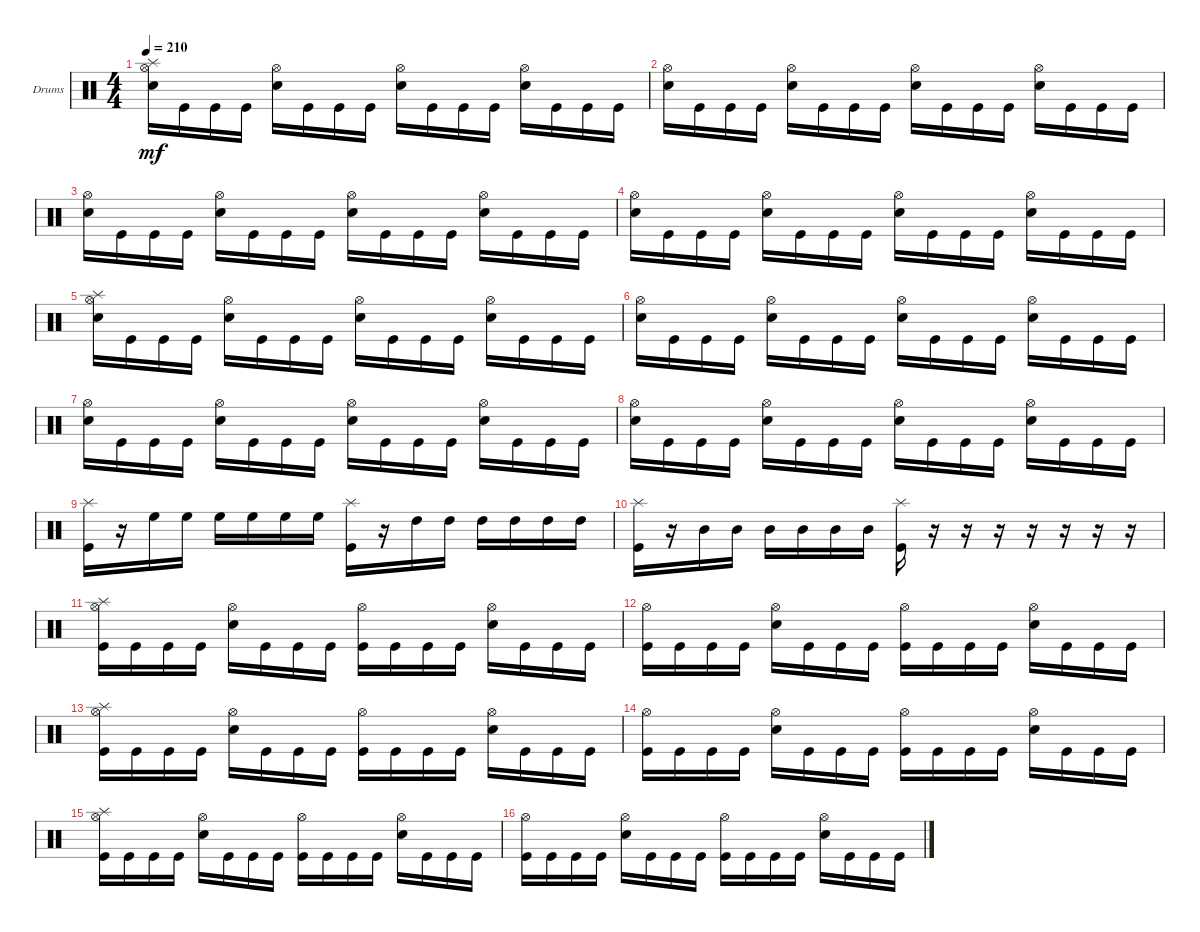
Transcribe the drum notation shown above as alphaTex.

\bracketExtendMode groupsimilarinstruments
\firstSystemTrackNameOrientation horizontal
\otherSystemsTrackNameOrientation horizontal
\track ("Drumkit" "Drums") {instrument percussion}
\staff {score}
\articulation defaults
\ts (4 4)
\tempo 210
\clef neutral
\ks c
("Snare (hit) 2" "Hi-Hat (open)" "Splash (hit)").16{dy mf} "Kick (hit)".16 "Kick (hit)".16 "Kick (hit)".16 ("Snare (hit) 2" "Hi-Hat (open)").16 "Kick (hit)".16 "Kick (hit)".16 "Kick (hit)".16 ("Snare (hit) 2" "Hi-Hat (open)").16 "Kick (hit)".16 "Kick (hit)".16 "Kick (hit)".16 ("Snare (hit) 2" "Hi-Hat (open)").16 "Kick (hit)".16 "Kick (hit)".16 "Kick (hit)".16 |
("Snare (hit) 2" "Hi-Hat (open)").16 "Kick (hit)".16 "Kick (hit)".16 "Kick (hit)".16 ("Snare (hit) 2" "Hi-Hat (open)").16 "Kick (hit)".16 "Kick (hit)".16 "Kick (hit)".16 ("Snare (hit) 2" "Hi-Hat (open)").16 "Kick (hit)".16 "Kick (hit)".16 "Kick (hit)".16 ("Snare (hit) 2" "Hi-Hat (open)").16 "Kick (hit)".16 "Kick (hit)".16 "Kick (hit)".16 |
("Snare (hit) 2" "Hi-Hat (open)").16 "Kick (hit)".16 "Kick (hit)".16 "Kick (hit)".16 ("Snare (hit) 2" "Hi-Hat (open)").16 "Kick (hit)".16 "Kick (hit)".16 "Kick (hit)".16 ("Snare (hit) 2" "Hi-Hat (open)").16 "Kick (hit)".16 "Kick (hit)".16 "Kick (hit)".16 ("Snare (hit) 2" "Hi-Hat (open)").16 "Kick (hit)".16 "Kick (hit)".16 "Kick (hit)".16 |
("Snare (hit) 2" "Hi-Hat (open)").16 "Kick (hit)".16 "Kick (hit)".16 "Kick (hit)".16 ("Snare (hit) 2" "Hi-Hat (open)").16 "Kick (hit)".16 "Kick (hit)".16 "Kick (hit)".16 ("Snare (hit) 2" "Hi-Hat (open)").16 "Kick (hit)".16 "Kick (hit)".16 "Kick (hit)".16 ("Snare (hit) 2" "Hi-Hat (open)").16 "Kick (hit)".16 "Kick (hit)".16 "Kick (hit)".16 |
("Snare (hit) 2" "Hi-Hat (open)" "Splash (hit)").16 "Kick (hit)".16 "Kick (hit)".16 "Kick (hit)".16 ("Snare (hit) 2" "Hi-Hat (open)").16 "Kick (hit)".16 "Kick (hit)".16 "Kick (hit)".16 ("Snare (hit) 2" "Hi-Hat (open)").16 "Kick (hit)".16 "Kick (hit)".16 "Kick (hit)".16 ("Snare (hit) 2" "Hi-Hat (open)").16 "Kick (hit)".16 "Kick (hit)".16 "Kick (hit)".16 |
("Snare (hit) 2" "Hi-Hat (open)").16 "Kick (hit)".16 "Kick (hit)".16 "Kick (hit)".16 ("Snare (hit) 2" "Hi-Hat (open)").16 "Kick (hit)".16 "Kick (hit)".16 "Kick (hit)".16 ("Snare (hit) 2" "Hi-Hat (open)").16 "Kick (hit)".16 "Kick (hit)".16 "Kick (hit)".16 ("Snare (hit) 2" "Hi-Hat (open)").16 "Kick (hit)".16 "Kick (hit)".16 "Kick (hit)".16 |
("Snare (hit) 2" "Hi-Hat (open)").16 "Kick (hit)".16 "Kick (hit)".16 "Kick (hit)".16 ("Snare (hit) 2" "Hi-Hat (open)").16 "Kick (hit)".16 "Kick (hit)".16 "Kick (hit)".16 ("Snare (hit) 2" "Hi-Hat (open)").16 "Kick (hit)".16 "Kick (hit)".16 "Kick (hit)".16 ("Snare (hit) 2" "Hi-Hat (open)").16 "Kick (hit)".16 "Kick (hit)".16 "Kick (hit)".16 |
("Snare (hit) 2" "Hi-Hat (open)").16 "Kick (hit)".16 "Kick (hit)".16 "Kick (hit)".16 ("Snare (hit) 2" "Hi-Hat (open)").16 "Kick (hit)".16 "Kick (hit)".16 "Kick (hit)".16 ("Snare (hit) 2" "Hi-Hat (open)").16 "Kick (hit)".16 "Kick (hit)".16 "Kick (hit)".16 ("Snare (hit) 2" "Hi-Hat (open)").16 "Kick (hit)".16 "Kick (hit)".16 "Kick (hit)".16 |
("Kick (hit)" "Splash (hit)").16 r.16 "High Floor Tom (hit)".16 "High Floor Tom (hit)".16 "High Floor Tom (hit)".16 "High Floor Tom (hit)".16 "High Floor Tom (hit)".16 "High Floor Tom (hit)".16 ("Kick (hit)" "Splash (hit)").16 r.16 "High Tom (hit)".16 "High Tom (hit)".16 "High Tom (hit)".16 "High Tom (hit)".16 "High Tom (hit)".16 "High Tom (hit)".16 |
("Kick (hit)" "Splash (hit)").16 r.16 "Mid Tom (hit)".16 "Mid Tom (hit)".16 "Mid Tom (hit)".16 "Mid Tom (hit)".16 "Mid Tom (hit)".16 "Mid Tom (hit)".16 ("Kick (hit)" "Splash (hit)").16 r.16 r.16 r.16 r.16 r.16 r.16 r.16 |
("Kick (hit)" "Hi-Hat (open)" "Splash (hit)").16 "Kick (hit)".16 "Kick (hit)".16 "Kick (hit)".16 ("Snare (hit) 2" "Hi-Hat (open)").16 "Kick (hit)".16 "Kick (hit)".16 "Kick (hit)".16 ("Kick (hit)" "Hi-Hat (open)").16 "Kick (hit)".16 "Kick (hit)".16 "Kick (hit)".16 ("Snare (hit) 2" "Hi-Hat (open)").16 "Kick (hit)".16 "Kick (hit)".16 "Kick (hit)".16 |
("Kick (hit)" "Hi-Hat (open)").16 "Kick (hit)".16 "Kick (hit)".16 "Kick (hit)".16 ("Snare (hit) 2" "Hi-Hat (open)").16 "Kick (hit)".16 "Kick (hit)".16 "Kick (hit)".16 ("Kick (hit)" "Hi-Hat (open)").16 "Kick (hit)".16 "Kick (hit)".16 "Kick (hit)".16 ("Snare (hit) 2" "Hi-Hat (open)").16 "Kick (hit)".16 "Kick (hit)".16 "Kick (hit)".16 |
("Kick (hit)" "Hi-Hat (open)" "Splash (hit)").16 "Kick (hit)".16 "Kick (hit)".16 "Kick (hit)".16 ("Snare (hit) 2" "Hi-Hat (open)").16 "Kick (hit)".16 "Kick (hit)".16 "Kick (hit)".16 ("Kick (hit)" "Hi-Hat (open)").16 "Kick (hit)".16 "Kick (hit)".16 "Kick (hit)".16 ("Snare (hit) 2" "Hi-Hat (open)").16 "Kick (hit)".16 "Kick (hit)".16 "Kick (hit)".16 |
("Kick (hit)" "Hi-Hat (open)").16 "Kick (hit)".16 "Kick (hit)".16 "Kick (hit)".16 ("Snare (hit) 2" "Hi-Hat (open)").16 "Kick (hit)".16 "Kick (hit)".16 "Kick (hit)".16 ("Kick (hit)" "Hi-Hat (open)").16 "Kick (hit)".16 "Kick (hit)".16 "Kick (hit)".16 ("Snare (hit) 2" "Hi-Hat (open)").16 "Kick (hit)".16 "Kick (hit)".16 "Kick (hit)".16 |
("Kick (hit)" "Hi-Hat (open)" "Splash (hit)").16 "Kick (hit)".16 "Kick (hit)".16 "Kick (hit)".16 ("Snare (hit) 2" "Hi-Hat (open)").16 "Kick (hit)".16 "Kick (hit)".16 "Kick (hit)".16 ("Kick (hit)" "Hi-Hat (open)").16 "Kick (hit)".16 "Kick (hit)".16 "Kick (hit)".16 ("Snare (hit) 2" "Hi-Hat (open)").16 "Kick (hit)".16 "Kick (hit)".16 "Kick (hit)".16 |
("Kick (hit)" "Hi-Hat (open)").16 "Kick (hit)".16 "Kick (hit)".16 "Kick (hit)".16 ("Snare (hit) 2" "Hi-Hat (open)").16 "Kick (hit)".16 "Kick (hit)".16 "Kick (hit)".16 ("Kick (hit)" "Hi-Hat (open)").16 "Kick (hit)".16 "Kick (hit)".16 "Kick (hit)".16 ("Snare (hit) 2" "Hi-Hat (open)").16 "Kick (hit)".16 "Kick (hit)".16 "Kick (hit)".16
